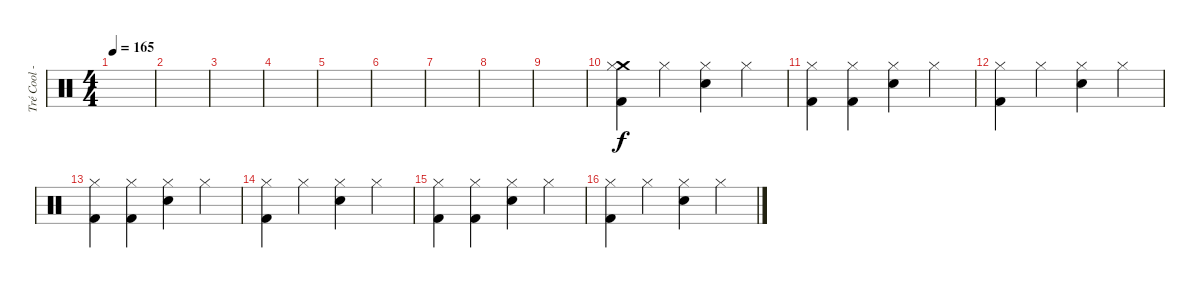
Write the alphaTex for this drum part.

\track ("Tré Cool - Drums" "Tré Cool -") {instrument percussion}
\staff {score}
\articulation defaults
\ts (4 4)
\tempo 165
\clef neutral
\ks c
|
|
|
|
|
|
|
|
|
("Crash medium (hit)" "Hi-Hat (closed)" "Kick (hit) 2").4 "Hi-Hat (closed)".4 ("Hi-Hat (closed)" "Electric Snare (hit)").4 "Hi-Hat (closed)".4 |
("Hi-Hat (closed)" "Kick (hit) 2").4 ("Hi-Hat (closed)" "Kick (hit) 2").4 ("Hi-Hat (closed)" "Electric Snare (hit)").4 "Hi-Hat (closed)".4 |
("Hi-Hat (closed)" "Kick (hit) 2").4 "Hi-Hat (closed)".4 ("Hi-Hat (closed)" "Electric Snare (hit)").4 "Hi-Hat (closed)".4 |
("Hi-Hat (closed)" "Kick (hit) 2").4 ("Hi-Hat (closed)" "Kick (hit) 2").4 ("Hi-Hat (closed)" "Electric Snare (hit)").4 "Hi-Hat (closed)".4 |
("Hi-Hat (closed)" "Kick (hit) 2").4 "Hi-Hat (closed)".4 ("Hi-Hat (closed)" "Electric Snare (hit)").4 "Hi-Hat (closed)".4 |
("Hi-Hat (closed)" "Kick (hit) 2").4 ("Hi-Hat (closed)" "Kick (hit) 2").4 ("Hi-Hat (closed)" "Electric Snare (hit)").4 "Hi-Hat (closed)".4 |
("Hi-Hat (closed)" "Kick (hit) 2").4 "Hi-Hat (closed)".4 ("Hi-Hat (closed)" "Electric Snare (hit)").4 "Hi-Hat (closed)".4
